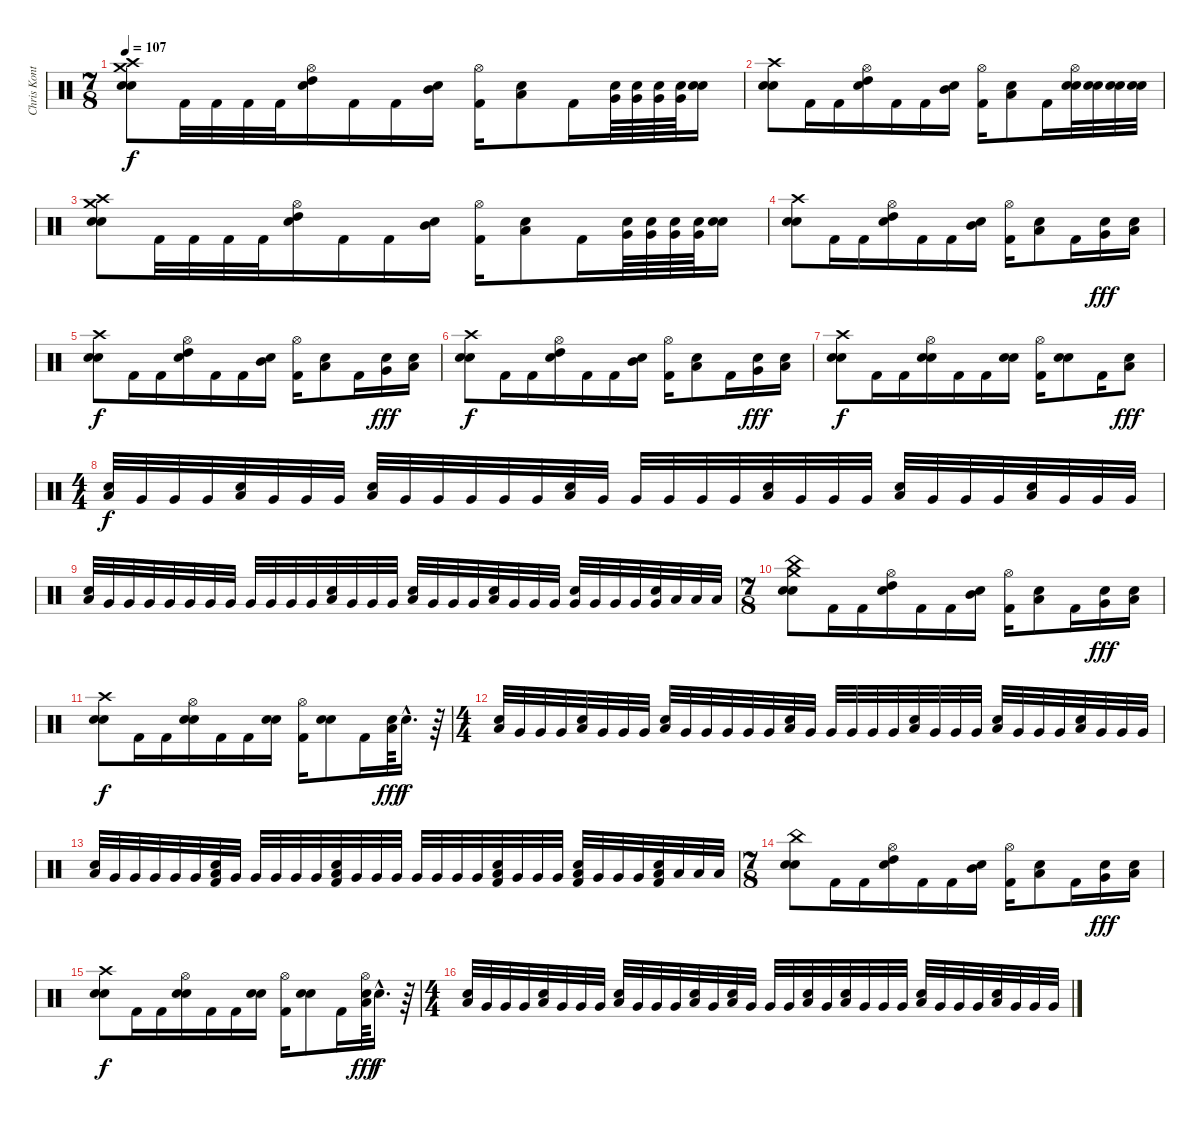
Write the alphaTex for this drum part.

\track ("Chris Kontos" "Chris Kont") {instrument percussion}
\staff {score}
\articulation defaults
\ts (7 8)
\tempo 107
\clef neutral
\ks c
("Crash high (hit)" "Snare (hit) 2" "Crash medium (hit)" "Electric Snare (hit)").8{dy f} "Kick (hit) 2".32 "Kick (hit) 2".32 "Kick (hit) 2".32 "Kick (hit) 2".32 ("High Tom (hit)" "Hi-Hat (open)" "Snare (hit) 2").16 "Kick (hit) 2".16 "Kick (hit) 2".16 ("Mid Tom (hit)" "Snare (hit) 2").16 ("Hi-Hat (open)" "Kick (hit) 2").16 ("Low Tom (hit)" "Snare (hit) 2").8 "Kick (hit) 2".16 ("Very Low Tom (hit)" "Electric Snare (hit)").64 ("Very Low Tom (hit)" "Electric Snare (hit)").64 ("Very Low Tom (hit)" "Electric Snare (hit)").64 ("Very Low Tom (hit)" "Electric Snare (hit)").64 ("Snare (hit) 2" "Electric Snare (hit)").16 |
("Crash high (hit)" "Snare (hit) 2" "Electric Snare (hit)").8 "Kick (hit) 2".16 "Kick (hit) 2".16 ("High Tom (hit)" "Hi-Hat (open)" "Snare (hit) 2").16 "Kick (hit) 2".16 "Kick (hit) 2".16 ("Mid Tom (hit)" "Snare (hit) 2").16 ("Hi-Hat (open)" "Kick (hit) 2").16 ("Low Tom (hit)" "Snare (hit) 2").8 "Kick (hit) 2".16 ("Snare (hit) 2" "Hi-Hat (open)" "Electric Snare (hit)").32 ("Snare (hit) 2" "Electric Snare (hit)").32 ("Snare (hit) 2" "Electric Snare (hit)").32 ("Snare (hit) 2" "Electric Snare (hit)").32 |
("Crash high (hit)" "Snare (hit) 2" "Crash medium (hit)" "Electric Snare (hit)").8 "Kick (hit) 2".32 "Kick (hit) 2".32 "Kick (hit) 2".32 "Kick (hit) 2".32 ("High Tom (hit)" "Hi-Hat (open)" "Snare (hit) 2").16 "Kick (hit) 2".16 "Kick (hit) 2".16 ("Mid Tom (hit)" "Snare (hit) 2").16 ("Hi-Hat (open)" "Kick (hit) 2").16 ("Low Tom (hit)" "Snare (hit) 2").8 "Kick (hit) 2".16 ("Very Low Tom (hit)" "Electric Snare (hit)").64 ("Very Low Tom (hit)" "Electric Snare (hit)").64 ("Very Low Tom (hit)" "Electric Snare (hit)").64 ("Very Low Tom (hit)" "Electric Snare (hit)").64 ("Snare (hit) 2" "Electric Snare (hit)").16 |
("Crash high (hit)" "Snare (hit) 2" "Electric Snare (hit)").8 "Kick (hit) 2".16 "Kick (hit) 2".16 ("High Tom (hit)" "Hi-Hat (open)" "Electric Snare (hit)").16 "Kick (hit) 2".16 "Kick (hit) 2".16 ("Mid Tom (hit)" "Snare (hit) 2").16 ("Hi-Hat (open)" "Kick (hit) 2").16 ("Low Tom (hit)" "Electric Snare (hit)").8 "Kick (hit) 2".16 ("Very Low Tom (hit)" "Snare (hit) 2").16{dy fff} ("Low Floor Tom (hit)" "Snare (hit) 2").16 |
("Crash high (hit)" "Snare (hit) 2" "Electric Snare (hit)").8{dy f} "Kick (hit) 2".16 "Kick (hit) 2".16 ("High Tom (hit)" "Hi-Hat (open)" "Electric Snare (hit)").16 "Kick (hit) 2".16 "Kick (hit) 2".16 ("Mid Tom (hit)" "Snare (hit) 2").16 ("Hi-Hat (open)" "Kick (hit) 2").16 ("Low Tom (hit)" "Electric Snare (hit)").8 "Kick (hit) 2".16 ("Very Low Tom (hit)" "Snare (hit) 2").16{dy fff} ("Low Floor Tom (hit)" "Snare (hit) 2").16 |
("Crash high (hit)" "Snare (hit) 2" "Electric Snare (hit)").8{dy f} "Kick (hit) 2".16 "Kick (hit) 2".16 ("High Tom (hit)" "Hi-Hat (open)" "Electric Snare (hit)").16 "Kick (hit) 2".16 "Kick (hit) 2".16 ("Mid Tom (hit)" "Snare (hit) 2").16 ("Hi-Hat (open)" "Kick (hit) 2").16 ("Low Tom (hit)" "Electric Snare (hit)").8 "Kick (hit) 2".16 ("Very Low Tom (hit)" "Snare (hit) 2").16{dy fff} ("Low Floor Tom (hit)" "Snare (hit) 2").16 |
("Crash high (hit)" "Snare (hit) 2" "Electric Snare (hit)").8{dy f} "Kick (hit) 2".16 "Kick (hit) 2".16 ("Snare (hit) 2" "Hi-Hat (open)" "Electric Snare (hit)").16 "Kick (hit) 2".16 "Kick (hit) 2".16 ("Snare (hit) 2" "Snare (hit) 2").16 ("Hi-Hat (open)" "Kick (hit) 2").16 ("Snare (hit) 2" "Electric Snare (hit)").8 "Kick (hit) 2".16 ("Low Floor Tom (hit)" "Snare (hit) 2").8{dy fff} |
\ts (4 4)
("Low Tom (hit)" "Snare (hit) 2").32{dy f} "Very Low Tom (hit)".32 "Very Low Tom (hit)".32 "Very Low Tom (hit)".32 ("Low Tom (hit)" "Snare (hit) 2").32 "Very Low Tom (hit)".32 "Very Low Tom (hit)".32 "Very Low Tom (hit)".32 ("Low Tom (hit)" "Snare (hit) 2").32 "Very Low Tom (hit)".32 "Very Low Tom (hit)".32 "Very Low Tom (hit)".32 "Very Low Tom (hit)".32 "Very Low Tom (hit)".32 ("Low Tom (hit)" "Snare (hit) 2").32 "Very Low Tom (hit)".32 "Very Low Tom (hit)".32 "Very Low Tom (hit)".32 "Very Low Tom (hit)".32 "Very Low Tom (hit)".32 ("Low Tom (hit)" "Snare (hit) 2").32 "Very Low Tom (hit)".32 "Very Low Tom (hit)".32 "Very Low Tom (hit)".32 ("Low Tom (hit)" "Snare (hit) 2").32 "Very Low Tom (hit)".32 "Very Low Tom (hit)".32 "Very Low Tom (hit)".32 ("Low Tom (hit)" "Snare (hit) 2").32 "Very Low Tom (hit)".32 "Very Low Tom (hit)".32 "Very Low Tom (hit)".32 |
("Low Tom (hit)" "Snare (hit) 2").32 "Very Low Tom (hit)".32 "Very Low Tom (hit)".32 "Very Low Tom (hit)".32 "Very Low Tom (hit)".32 "Very Low Tom (hit)".32 "Very Low Tom (hit)".32 "Very Low Tom (hit)".32 "Very Low Tom (hit)".32 "Very Low Tom (hit)".32 "Very Low Tom (hit)".32 "Very Low Tom (hit)".32 ("Low Tom (hit)" "Snare (hit) 2").32 "Very Low Tom (hit)".32 "Very Low Tom (hit)".32 "Very Low Tom (hit)".32 ("Low Tom (hit)" "Snare (hit) 2").32 "Very Low Tom (hit)".32 "Very Low Tom (hit)".32 "Very Low Tom (hit)".32 ("Low Tom (hit)" "Snare (hit) 2").32 "Very Low Tom (hit)".32 "Very Low Tom (hit)".32 "Very Low Tom (hit)".32 ("Very Low Tom (hit)" "Snare (hit) 2").32 "Very Low Tom (hit)".32 "Very Low Tom (hit)".32 "Very Low Tom (hit)".32 ("Very Low Tom (hit)" "Snare (hit) 2").32 "Low Floor Tom (hit)".32 "Low Floor Tom (hit)".32 "Low Floor Tom (hit)".32 |
\ts (7 8)
("China (hit)" "Snare (hit) 2" "Crash medium (hit)" "Electric Snare (hit)").8 "Kick (hit) 2".16 "Kick (hit) 2".16 ("High Tom (hit)" "Hi-Hat (open)" "Electric Snare (hit)").16 "Kick (hit) 2".16 "Kick (hit) 2".16 ("Mid Tom (hit)" "Snare (hit) 2").16 ("Hi-Hat (open)" "Kick (hit) 2").16 ("Low Tom (hit)" "Electric Snare (hit)").8 "Kick (hit) 2".16 ("Very Low Tom (hit)" "Snare (hit) 2").16{dy fff} ("Low Floor Tom (hit)" "Snare (hit) 2").16 |
("Crash high (hit)" "Snare (hit) 2" "Electric Snare (hit)").8{dy f} "Kick (hit) 2".16 "Kick (hit) 2".16 ("Snare (hit) 2" "Hi-Hat (open)" "Electric Snare (hit)").16 "Kick (hit) 2".16 "Kick (hit) 2".16 ("Snare (hit) 2" "Snare (hit) 2").16 ("Hi-Hat (open)" "Kick (hit) 2").16 ("Snare (hit) 2" "Electric Snare (hit)").8 "Kick (hit) 2".16 ("Low Floor Tom (hit)" "Electric Snare (hit)").64{dy fff} "Snare (hit) 2"{hac}.16{d dy f} r.64 |
\ts (4 4)
("Low Tom (hit)" "Snare (hit) 2").32 "Very Low Tom (hit)".32 "Very Low Tom (hit)".32 "Very Low Tom (hit)".32 ("Low Tom (hit)" "Snare (hit) 2").32 "Very Low Tom (hit)".32 "Very Low Tom (hit)".32 "Very Low Tom (hit)".32 ("Low Tom (hit)" "Snare (hit) 2").32 "Very Low Tom (hit)".32 "Very Low Tom (hit)".32 "Very Low Tom (hit)".32 "Very Low Tom (hit)".32 "Very Low Tom (hit)".32 ("Low Tom (hit)" "Snare (hit) 2").32 "Very Low Tom (hit)".32 "Very Low Tom (hit)".32 "Very Low Tom (hit)".32 "Very Low Tom (hit)".32 "Very Low Tom (hit)".32 ("Low Tom (hit)" "Snare (hit) 2").32 "Very Low Tom (hit)".32 "Very Low Tom (hit)".32 "Very Low Tom (hit)".32 ("Low Tom (hit)" "Snare (hit) 2").32 "Very Low Tom (hit)".32 "Very Low Tom (hit)".32 "Very Low Tom (hit)".32 ("Low Tom (hit)" "Snare (hit) 2").32 "Very Low Tom (hit)".32 "Very Low Tom (hit)".32 "Very Low Tom (hit)".32 |
("Low Floor Tom (hit)" "Snare (hit) 2").32 "Very Low Tom (hit)".32 "Very Low Tom (hit)".32 "Very Low Tom (hit)".32 "Very Low Tom (hit)".32 "Very Low Tom (hit)".32 ("Low Floor Tom (hit)" "Snare (hit) 2" "Kick (hit) 2").32 "Very Low Tom (hit)".32 "Very Low Tom (hit)".32 "Very Low Tom (hit)".32 "Very Low Tom (hit)".32 "Very Low Tom (hit)".32 ("Low Floor Tom (hit)" "Snare (hit) 2" "Kick (hit) 2").32 "Very Low Tom (hit)".32 "Very Low Tom (hit)".32 "Very Low Tom (hit)".32 "Very Low Tom (hit)".32 "Very Low Tom (hit)".32 "Very Low Tom (hit)".32 "Very Low Tom (hit)".32 ("Low Floor Tom (hit)" "Snare (hit) 2" "Kick (hit) 2").32 "Very Low Tom (hit)".32 "Very Low Tom (hit)".32 "Very Low Tom (hit)".32 ("Low Floor Tom (hit)" "Snare (hit) 2" "Kick (hit) 2").32 "Very Low Tom (hit)".32 "Very Low Tom (hit)".32 "Very Low Tom (hit)".32 ("Low Floor Tom (hit)" "Snare (hit) 2" "Kick (hit) 2").32 "Low Floor Tom (hit)".32 "Low Floor Tom (hit)".32 "Low Floor Tom (hit)".32 |
\ts (7 8)
("China (hit)" "Snare (hit) 2" "Electric Snare (hit)").8 "Kick (hit) 2".16 "Kick (hit) 2".16 ("High Tom (hit)" "Hi-Hat (open)" "Electric Snare (hit)").16 "Kick (hit) 2".16 "Kick (hit) 2".16 ("Mid Tom (hit)" "Snare (hit) 2").16 ("Hi-Hat (open)" "Kick (hit) 2").16 ("Low Tom (hit)" "Electric Snare (hit)").8 "Kick (hit) 2".16 ("Very Low Tom (hit)" "Snare (hit) 2").16{dy fff} ("Low Floor Tom (hit)" "Snare (hit) 2").16 |
("Crash high (hit)" "Snare (hit) 2" "Electric Snare (hit)").8{dy f} "Kick (hit) 2".16 "Kick (hit) 2".16 ("Snare (hit) 2" "Hi-Hat (open)" "Electric Snare (hit)").16 "Kick (hit) 2".16 "Kick (hit) 2".16 ("Snare (hit) 2" "Snare (hit) 2").16 ("Hi-Hat (open)" "Kick (hit) 2").16 ("Snare (hit) 2" "Electric Snare (hit)").8 "Kick (hit) 2".16 ("Low Floor Tom (hit)" "Hi-Hat (open)" "Electric Snare (hit)").64{dy fff} "Snare (hit) 2"{hac}.16{d dy f} r.64 |
\ts (4 4)
("Low Tom (hit)" "Snare (hit) 2").32 "Very Low Tom (hit)".32 "Very Low Tom (hit)".32 "Very Low Tom (hit)".32 ("Low Tom (hit)" "Snare (hit) 2").32 "Very Low Tom (hit)".32 "Very Low Tom (hit)".32 "Very Low Tom (hit)".32 ("Low Tom (hit)" "Snare (hit) 2").32 "Very Low Tom (hit)".32 "Very Low Tom (hit)".32 "Very Low Tom (hit)".32 ("Low Tom (hit)" "Snare (hit) 2").32 "Very Low Tom (hit)".32 ("Low Tom (hit)" "Snare (hit) 2").32 "Very Low Tom (hit)".32 "Very Low Tom (hit)".32 "Very Low Tom (hit)".32 ("Low Tom (hit)" "Snare (hit) 2").32 "Very Low Tom (hit)".32 ("Low Tom (hit)" "Snare (hit) 2").32 "Very Low Tom (hit)".32 "Very Low Tom (hit)".32 "Very Low Tom (hit)".32 ("Low Tom (hit)" "Snare (hit) 2").32 "Very Low Tom (hit)".32 "Very Low Tom (hit)".32 "Very Low Tom (hit)".32 ("Low Tom (hit)" "Snare (hit) 2").32 "Very Low Tom (hit)".32 "Very Low Tom (hit)".32 "Very Low Tom (hit)".32
